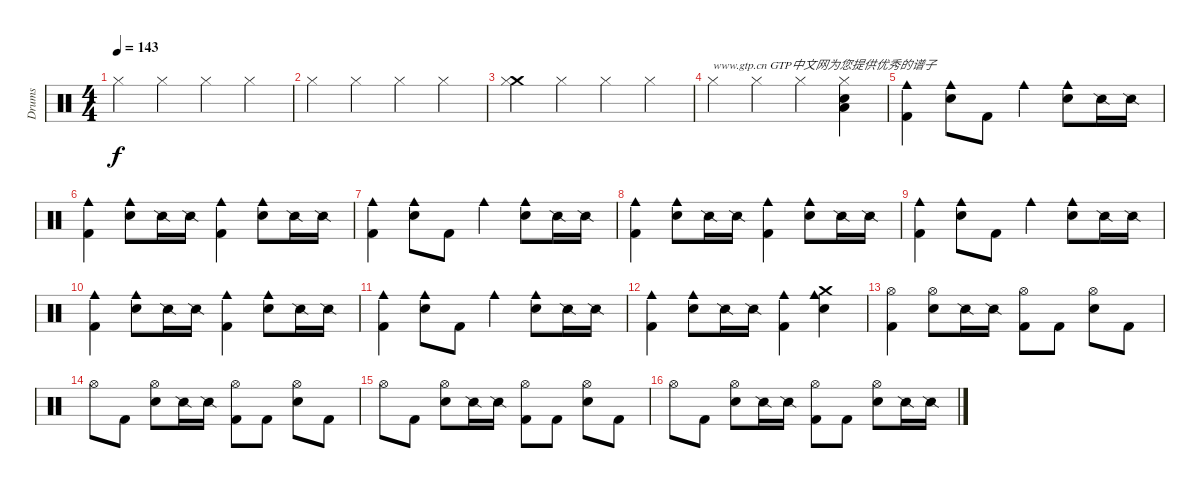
\track ("Drums" "Drums") {instrument percussion}
\staff {score}
\articulation defaults
\ts (4 4)
\tempo 143
\clef neutral
\ks c "Hi-Hat (closed)".4{dy f} "Hi-Hat (closed)".4 "Hi-Hat (closed)".4 "Hi-Hat (closed)".4
|
"Hi-Hat (closed)".4 "Hi-Hat (closed)".4 "Hi-Hat (closed)".4 "Hi-Hat (closed)".4 |
("Crash medium (hit)" "Hi-Hat (closed)").4 "Hi-Hat (closed)".4 "Hi-Hat (closed)".4 "Hi-Hat (closed)".4 |
"Hi-Hat (closed)".4{txt "www.gtp.cn GTP中文网为您提供优秀的谱子"} "Hi-Hat (closed)".4 "Hi-Hat (closed)".4 ("Hi-Hat (closed)" "Low Tom (hit)" "Metronome (bell)").4 |
("Cowbell medium (hit)" "Kick (hit) 2").4 ("Cowbell medium (hit)" "Metronome (bell)").8 "Kick (hit) 2".8 "Cowbell medium (hit)".4 ("Cowbell medium (hit)" "Metronome (bell)").8 "Snare (side stick) 2".16 "Snare (side stick) 2".16 |
("Cowbell medium (hit)" "Kick (hit) 2").4 ("Cowbell medium (hit)" "Metronome (bell)").8 "Snare (side stick) 2".16 "Snare (side stick) 2".16 ("Cowbell medium (hit)" "Kick (hit) 2").4 ("Cowbell medium (hit)" "Metronome (bell)").8 "Snare (side stick) 2".16 "Snare (side stick) 2".16 |
("Cowbell medium (hit)" "Kick (hit) 2").4 ("Cowbell medium (hit)" "Metronome (bell)").8 "Kick (hit) 2".8 "Cowbell medium (hit)".4 ("Cowbell medium (hit)" "Metronome (bell)").8 "Snare (side stick) 2".16 "Snare (side stick) 2".16 |
("Cowbell medium (hit)" "Kick (hit) 2").4 ("Cowbell medium (hit)" "Metronome (bell)").8 "Snare (side stick) 2".16 "Snare (side stick) 2".16 ("Cowbell medium (hit)" "Kick (hit) 2").4 ("Cowbell medium (hit)" "Metronome (bell)").8 "Snare (side stick) 2".16 "Snare (side stick) 2".16 |
("Cowbell medium (hit)" "Kick (hit) 2").4 ("Cowbell medium (hit)" "Metronome (bell)").8 "Kick (hit) 2".8 "Cowbell medium (hit)".4 ("Cowbell medium (hit)" "Metronome (bell)").8 "Snare (side stick) 2".16 "Snare (side stick) 2".16 |
("Cowbell medium (hit)" "Kick (hit) 2").4 ("Cowbell medium (hit)" "Metronome (bell)").8 "Snare (side stick) 2".16 "Snare (side stick) 2".16 ("Cowbell medium (hit)" "Kick (hit) 2").4 ("Cowbell medium (hit)" "Metronome (bell)").8 "Snare (side stick) 2".16 "Snare (side stick) 2".16 |
("Cowbell medium (hit)" "Kick (hit) 2").4 ("Cowbell medium (hit)" "Metronome (bell)").8 "Kick (hit) 2".8 "Cowbell medium (hit)".4 ("Cowbell medium (hit)" "Metronome (bell)").8 "Snare (side stick) 2".16 "Snare (side stick) 2".16 |
("Cowbell medium (hit)" "Kick (hit) 2").4 ("Cowbell medium (hit)" "Metronome (bell)").8 "Snare (side stick) 2".16 "Snare (side stick) 2".16 ("Cowbell medium (hit)" "Kick (hit) 2").4 ("Cowbell medium (hit)" "Crash medium (hit)" "Metronome (bell)").4 |
("Hi-Hat (open)" "Kick (hit) 2").4 ("Hi-Hat (open)" "Metronome (bell)").8 "Snare (side stick) 2".16 "Snare (side stick) 2".16 ("Hi-Hat (open)" "Kick (hit) 2").8 "Kick (hit) 2".8 ("Hi-Hat (open)" "Metronome (bell)").8 "Kick (hit) 2".8 |
"Hi-Hat (open)".8 "Kick (hit) 2".8 ("Hi-Hat (open)" "Metronome (bell)").8 "Snare (side stick) 2".16 "Snare (side stick) 2".16 ("Hi-Hat (open)" "Kick (hit) 2").8 "Kick (hit) 2".8 ("Hi-Hat (open)" "Metronome (bell)").8 "Kick (hit) 2".8 |
"Hi-Hat (open)".8 "Kick (hit) 2".8 ("Hi-Hat (open)" "Metronome (bell)").8 "Snare (side stick) 2".16 "Snare (side stick) 2".16 ("Hi-Hat (open)" "Kick (hit) 2").8 "Kick (hit) 2".8 ("Hi-Hat (open)" "Metronome (bell)").8 "Kick (hit) 2".8 |
"Hi-Hat (open)".8 "Kick (hit) 2".8 ("Hi-Hat (open)" "Metronome (bell)").8 "Snare (side stick) 2".16 "Snare (side stick) 2".16 ("Hi-Hat (open)" "Kick (hit) 2").8 "Kick (hit) 2".8 ("Hi-Hat (open)" "Metronome (bell)").8 "Snare (side stick) 2".16 "Snare (side stick) 2".16
